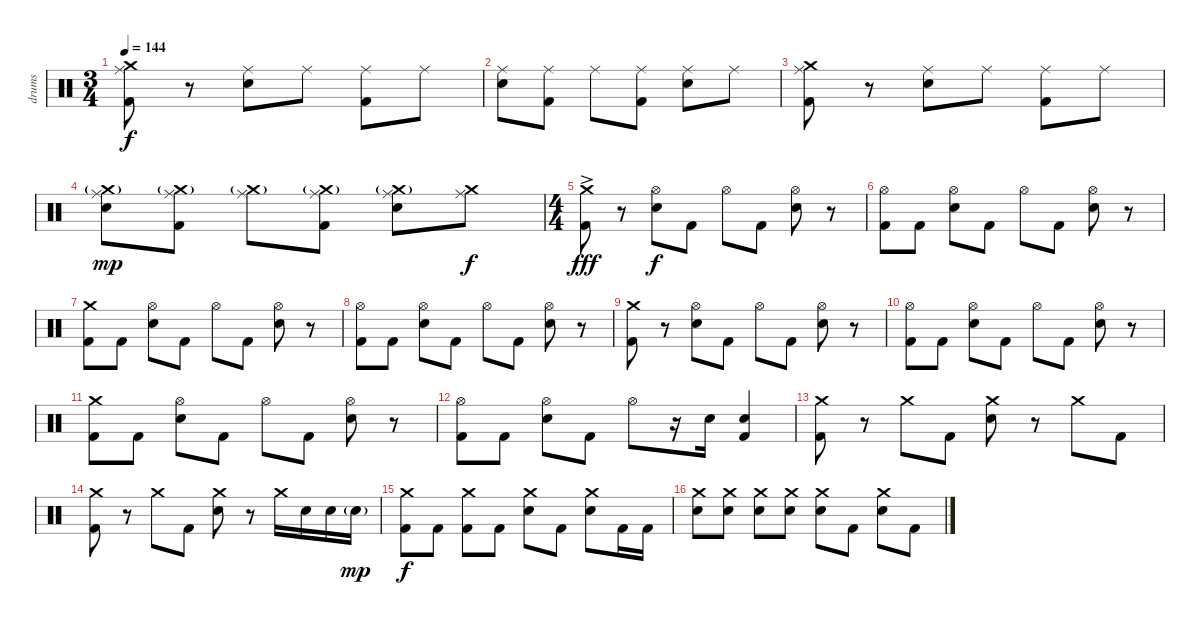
\track ("drums" "drums") {instrument percussion}
\staff {score}
\articulation defaults
\ts (3 4)
\tempo 144
\clef neutral
\ks c
("Crash medium (hit)" "Ride (middle)" "Kick (hit) 2").8{dy f} r.8 ("Ride (middle)" "Snare (hit) 2").8 "Ride (middle)".8 ("Ride (middle)" "Kick (hit) 2").8 "Ride (middle)".8 |
("Ride (middle)" "Snare (hit) 2").8 ("Ride (middle)" "Kick (hit) 2").8 "Ride (middle)".8 ("Ride (middle)" "Kick (hit) 2").8 ("Ride (middle)" "Snare (hit) 2").8 "Ride (middle)".8 |
("Crash medium (hit)" "Ride (middle)" "Kick (hit) 2").8 r.8 ("Ride (middle)" "Snare (hit) 2").8 "Ride (middle)".8 ("Ride (middle)" "Kick (hit) 2").8 "Ride (middle)".8 |
("Crash medium (hit)"{g} "Ride (middle)" "Snare (hit) 2").8{dy mp} ("Crash medium (hit)"{g} "Ride (middle)" "Kick (hit) 2").8 ("Crash medium (hit)"{g} "Ride (middle)").8 ("Crash medium (hit)"{g} "Ride (middle)" "Kick (hit) 2").8 ("Crash medium (hit)"{g} "Ride (middle)" "Snare (hit) 2").8 ("Crash medium (hit)" "Ride (middle)").8{dy f} |
\ts (4 4)
("Crash medium (hit)"{ac} "Kick (hit) 2").8{dy fff} r.8 ("Hi-Hat (open)" "Snare (hit) 2").8{dy f} "Kick (hit) 2".8 "Hi-Hat (open)".8 "Kick (hit) 2".8 ("Hi-Hat (open)" "Snare (hit) 2").8 r.8 |
("Hi-Hat (open)" "Kick (hit) 2").8 "Kick (hit) 2".8 ("Hi-Hat (open)" "Snare (hit) 2").8 "Kick (hit) 2".8 "Hi-Hat (open)".8 "Kick (hit) 2".8 ("Hi-Hat (open)" "Snare (hit) 2").8 r.8 |
("Crash medium (hit)" "Kick (hit) 2").8 "Kick (hit) 2".8 ("Hi-Hat (open)" "Snare (hit) 2").8 "Kick (hit) 2".8 "Hi-Hat (open)".8 "Kick (hit) 2".8 ("Hi-Hat (open)" "Snare (hit) 2").8 r.8 |
("Hi-Hat (open)" "Kick (hit) 2").8 "Kick (hit) 2".8 ("Hi-Hat (open)" "Snare (hit) 2").8 "Kick (hit) 2".8 "Hi-Hat (open)".8 "Kick (hit) 2".8 ("Hi-Hat (open)" "Snare (hit) 2").8 r.8 |
("Crash medium (hit)" "Kick (hit) 2").8 r.8 ("Hi-Hat (open)" "Snare (hit) 2").8 "Kick (hit) 2".8 "Hi-Hat (open)".8 "Kick (hit) 2".8 ("Hi-Hat (open)" "Snare (hit) 2").8 r.8 |
("Hi-Hat (open)" "Kick (hit) 2").8 "Kick (hit) 2".8 ("Hi-Hat (open)" "Snare (hit) 2").8 "Kick (hit) 2".8 "Hi-Hat (open)".8 "Kick (hit) 2".8 ("Hi-Hat (open)" "Snare (hit) 2").8 r.8 |
("Crash medium (hit)" "Kick (hit) 2").8 "Kick (hit) 2".8 ("Hi-Hat (open)" "Snare (hit) 2").8 "Kick (hit) 2".8 "Hi-Hat (open)".8 "Kick (hit) 2".8 ("Hi-Hat (open)" "Snare (hit) 2").8 r.8 |
("Hi-Hat (open)" "Kick (hit) 2").8 "Kick (hit) 2".8 ("Hi-Hat (open)" "Snare (hit) 2").8 "Kick (hit) 2".8 "Hi-Hat (open)".8 r.16 "Snare (hit) 2".16 ("Snare (hit) 2" "Kick (hit) 2").4 |
("Crash medium (hit)" "Kick (hit) 2").8 r.8 "Crash medium (hit)".8 "Kick (hit) 2".8 ("Crash medium (hit)" "Snare (hit) 2").8 r.8 "Crash medium (hit)".8 "Kick (hit) 2".8 |
("Crash medium (hit)" "Kick (hit) 2").8 r.8 "Crash medium (hit)".8 "Kick (hit) 2".8 ("Crash medium (hit)" "Snare (hit) 2").8 r.8 "Crash medium (hit)".16 "Snare (hit) 2".16 "Snare (hit) 2".16 "Snare (hit) 2"{g}.16{dy mp} |
("Crash medium (hit)" "Kick (hit) 2").8{dy f} "Kick (hit) 2".8 ("Crash medium (hit)" "Kick (hit) 2").8 "Kick (hit) 2".8 ("Crash medium (hit)" "Snare (hit) 2").8 "Kick (hit) 2".8 ("Crash medium (hit)" "Snare (hit) 2").8 "Kick (hit) 2".16 "Kick (hit) 2".16 |
("Crash medium (hit)" "Snare (hit) 2").8 ("Crash medium (hit)" "Snare (hit) 2").8 ("Crash medium (hit)" "Snare (hit) 2").8 ("Crash medium (hit)" "Snare (hit) 2").8 ("Crash medium (hit)" "Snare (hit) 2").8 "Kick (hit) 2".8 ("Crash medium (hit)" "Snare (hit) 2").8 "Kick (hit) 2".8
